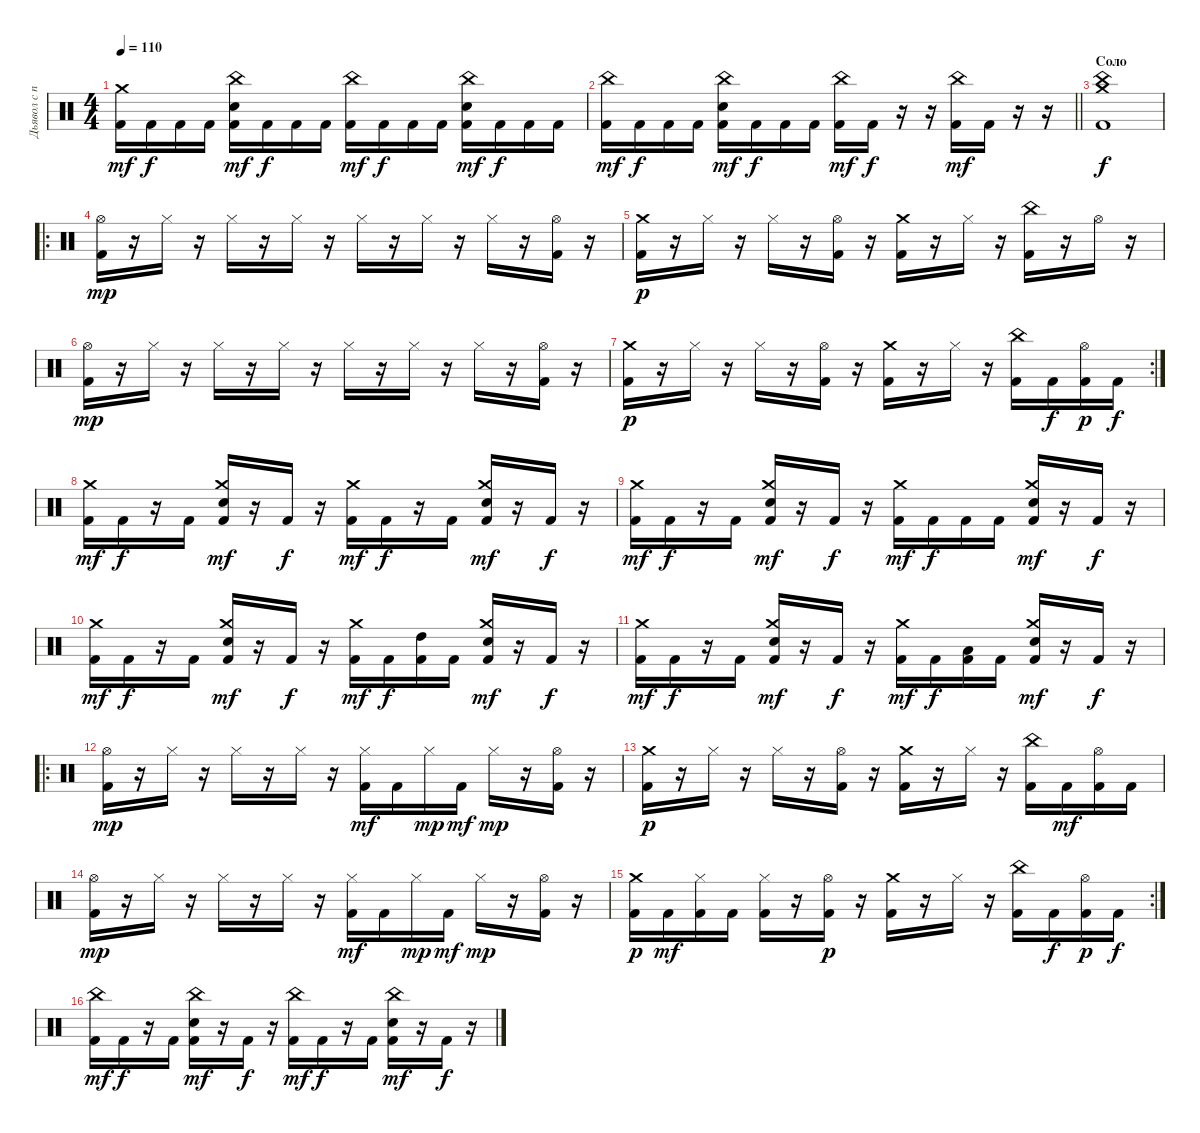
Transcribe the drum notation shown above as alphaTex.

\track ("Дьявол с палками" "Дьявол с п") {instrument percussion}
\staff {score}
\articulation defaults
\ts (4 4)
\tempo 110
\clef neutral
\ks c
("Kick (hit) 2" "Crash medium (hit)").16{dy mf} "Kick (hit) 2".16{dy f} "Kick (hit) 2".16 "Kick (hit) 2".16 ("Kick (hit) 2" "Snare (hit) 2" "China (hit)").16{dy mf} "Kick (hit) 2".16{dy f} "Kick (hit) 2".16 "Kick (hit) 2".16 ("Kick (hit) 2" "China (hit)").16{dy mf} "Kick (hit) 2".16{dy f} "Kick (hit) 2".16 "Kick (hit) 2".16 ("Kick (hit) 2" "Snare (hit) 2" "China (hit)").16{dy mf} "Kick (hit) 2".16{dy f} "Kick (hit) 2".16 "Kick (hit) 2".16 |
\barLineRight lightlight
("Kick (hit) 2" "China (hit)").16{dy mf} "Kick (hit) 2".16{dy f} "Kick (hit) 2".16 "Kick (hit) 2".16 ("Kick (hit) 2" "Snare (hit) 2" "China (hit)").16{dy mf} "Kick (hit) 2".16{dy f} "Kick (hit) 2".16 "Kick (hit) 2".16 ("Kick (hit) 2" "China (hit)").16{dy mf} "Kick (hit) 2".16{dy f} r.16 r.16 ("Kick (hit) 2" "China (hit)").16{dy mf} "Kick (hit) 2".16 r.16 r.16 |
\section ("" "Соло")
("Kick (hit) 2" "China (hit)" "Crash medium (hit)").1{dy f} |
\ro
("Kick (hit) 2" "Hi-Hat (open)").16{dy mp} r.16 "Hi-Hat (closed)".16 r.16 "Hi-Hat (closed)".16 r.16 "Hi-Hat (closed)".16 r.16 "Hi-Hat (closed)".16 r.16 "Hi-Hat (closed)".16 r.16 "Hi-Hat (closed)".16 r.16 ("Kick (hit) 2" "Hi-Hat (open)").16 r.16 |
("Kick (hit) 2" "Crash medium (hit)").16{dy p} r.16 "Hi-Hat (closed)".16 r.16 "Hi-Hat (closed)".16 r.16 ("Kick (hit) 2" "Hi-Hat (open)").16 r.16 ("Kick (hit) 2" "Crash medium (hit)").16 r.16 "Hi-Hat (closed)".16 r.16 ("Kick (hit) 2" "China (hit)").16 r.16 "Hi-Hat (open)".16 r.16 |
("Kick (hit) 2" "Hi-Hat (open)").16{dy mp} r.16 "Hi-Hat (closed)".16 r.16 "Hi-Hat (closed)".16 r.16 "Hi-Hat (closed)".16 r.16 "Hi-Hat (closed)".16 r.16 "Hi-Hat (closed)".16 r.16 "Hi-Hat (closed)".16 r.16 ("Kick (hit) 2" "Hi-Hat (open)").16 r.16 |
\rc 2
("Kick (hit) 2" "Crash medium (hit)").16{dy p} r.16 "Hi-Hat (closed)".16 r.16 "Hi-Hat (closed)".16 r.16 ("Kick (hit) 2" "Hi-Hat (open)").16 r.16 ("Kick (hit) 2" "Crash medium (hit)").16 r.16 "Hi-Hat (closed)".16 r.16 ("Kick (hit) 2" "China (hit)").16 "Kick (hit) 2".16{dy f} ("Hi-Hat (open)" "Kick (hit) 2").16{dy p} "Kick (hit) 2".16{dy f} |
("Kick (hit) 2" "Crash medium (hit)").16{dy mf} "Kick (hit) 2".16{dy f} r.16 "Kick (hit) 2".16 ("Kick (hit) 2" "Snare (hit) 2" "Crash medium (hit)").16{dy mf} r.16 "Kick (hit) 2".16{dy f} r.16 ("Kick (hit) 2" "Crash medium (hit)").16{dy mf} "Kick (hit) 2".16{dy f} r.16 "Kick (hit) 2".16 ("Kick (hit) 2" "Snare (hit) 2" "Crash medium (hit)").16{dy mf} r.16 "Kick (hit) 2".16{dy f} r.16 |
("Kick (hit) 2" "Crash medium (hit)").16{dy mf} "Kick (hit) 2".16{dy f} r.16 "Kick (hit) 2".16 ("Kick (hit) 2" "Snare (hit) 2" "Crash medium (hit)").16{dy mf} r.16 "Kick (hit) 2".16{dy f} r.16 ("Kick (hit) 2" "Crash medium (hit)").16{dy mf} "Kick (hit) 2".16{dy f} "Kick (hit) 2".16 "Kick (hit) 2".16 ("Kick (hit) 2" "Snare (hit) 2" "Crash medium (hit)").16{dy mf} r.16 "Kick (hit) 2".16{dy f} r.16 |
("Kick (hit) 2" "Crash medium (hit)").16{dy mf} "Kick (hit) 2".16{dy f} r.16 "Kick (hit) 2".16 ("Kick (hit) 2" "Snare (hit) 2" "Crash medium (hit)").16{dy mf} r.16 "Kick (hit) 2".16{dy f} r.16 ("Kick (hit) 2" "Crash medium (hit)").16{dy mf} "Kick (hit) 2".16{dy f} ("Kick (hit) 2" "High Tom (hit)").16 "Kick (hit) 2".16 ("Kick (hit) 2" "Snare (hit) 2" "Crash medium (hit)").16{dy mf} r.16 "Kick (hit) 2".16{dy f} r.16 |
("Kick (hit) 2" "Crash medium (hit)").16{dy mf} "Kick (hit) 2".16{dy f} r.16 "Kick (hit) 2".16 ("Kick (hit) 2" "Snare (hit) 2" "Crash medium (hit)").16{dy mf} r.16 "Kick (hit) 2".16{dy f} r.16 ("Kick (hit) 2" "Crash medium (hit)").16{dy mf} "Kick (hit) 2".16{dy f} ("Kick (hit) 2" "Low Tom (hit)").16 "Kick (hit) 2".16 ("Kick (hit) 2" "Snare (hit) 2" "Crash medium (hit)").16{dy mf} r.16 "Kick (hit) 2".16{dy f} r.16 |
\ro
("Kick (hit) 2" "Hi-Hat (open)").16{dy mp} r.16 "Hi-Hat (closed)".16 r.16 "Hi-Hat (closed)".16 r.16 "Hi-Hat (closed)".16 r.16 ("Hi-Hat (closed)" "Kick (hit) 2").16{dy mf} "Kick (hit) 2".16 "Hi-Hat (closed)".16{dy mp} "Kick (hit) 2".16{dy mf} "Hi-Hat (closed)".16{dy mp} r.16 ("Kick (hit) 2" "Hi-Hat (open)").16 r.16 |
("Kick (hit) 2" "Crash medium (hit)").16{dy p} r.16 "Hi-Hat (closed)".16 r.16 "Hi-Hat (closed)".16 r.16 ("Kick (hit) 2" "Hi-Hat (open)").16 r.16 ("Kick (hit) 2" "Crash medium (hit)").16 r.16 "Hi-Hat (closed)".16 r.16 ("Kick (hit) 2" "China (hit)").16 "Kick (hit) 2".16{dy mf} ("Hi-Hat (open)" "Kick (hit) 2").16 "Kick (hit) 2".16 |
("Kick (hit) 2" "Hi-Hat (open)").16{dy mp} r.16 "Hi-Hat (closed)".16 r.16 "Hi-Hat (closed)".16 r.16 "Hi-Hat (closed)".16 r.16 ("Hi-Hat (closed)" "Kick (hit) 2").16{dy mf} "Kick (hit) 2".16 "Hi-Hat (closed)".16{dy mp} "Kick (hit) 2".16{dy mf} "Hi-Hat (closed)".16{dy mp} r.16 ("Kick (hit) 2" "Hi-Hat (open)").16 r.16 |
\rc 2
("Kick (hit) 2" "Crash medium (hit)").16{dy p} "Kick (hit) 2".16{dy mf} ("Hi-Hat (closed)" "Kick (hit) 2").16 "Kick (hit) 2".16 ("Hi-Hat (closed)" "Kick (hit) 2").16 r.16 ("Kick (hit) 2" "Hi-Hat (open)").16{dy p} r.16 ("Kick (hit) 2" "Crash medium (hit)").16 r.16 "Hi-Hat (closed)".16 r.16 ("Kick (hit) 2" "China (hit)").16 "Kick (hit) 2".16{dy f} ("Hi-Hat (open)" "Kick (hit) 2").16{dy p} "Kick (hit) 2".16{dy f} |
("Kick (hit) 2" "China (hit)").16{dy mf} "Kick (hit) 2".16{dy f} r.16 "Kick (hit) 2".16 ("Kick (hit) 2" "Snare (hit) 2" "China (hit)").16{dy mf} r.16 "Kick (hit) 2".16{dy f} r.16 ("Kick (hit) 2" "China (hit)").16{dy mf} "Kick (hit) 2".16{dy f} r.16 "Kick (hit) 2".16 ("Kick (hit) 2" "Snare (hit) 2" "China (hit)").16{dy mf} r.16 "Kick (hit) 2".16{dy f} r.16
